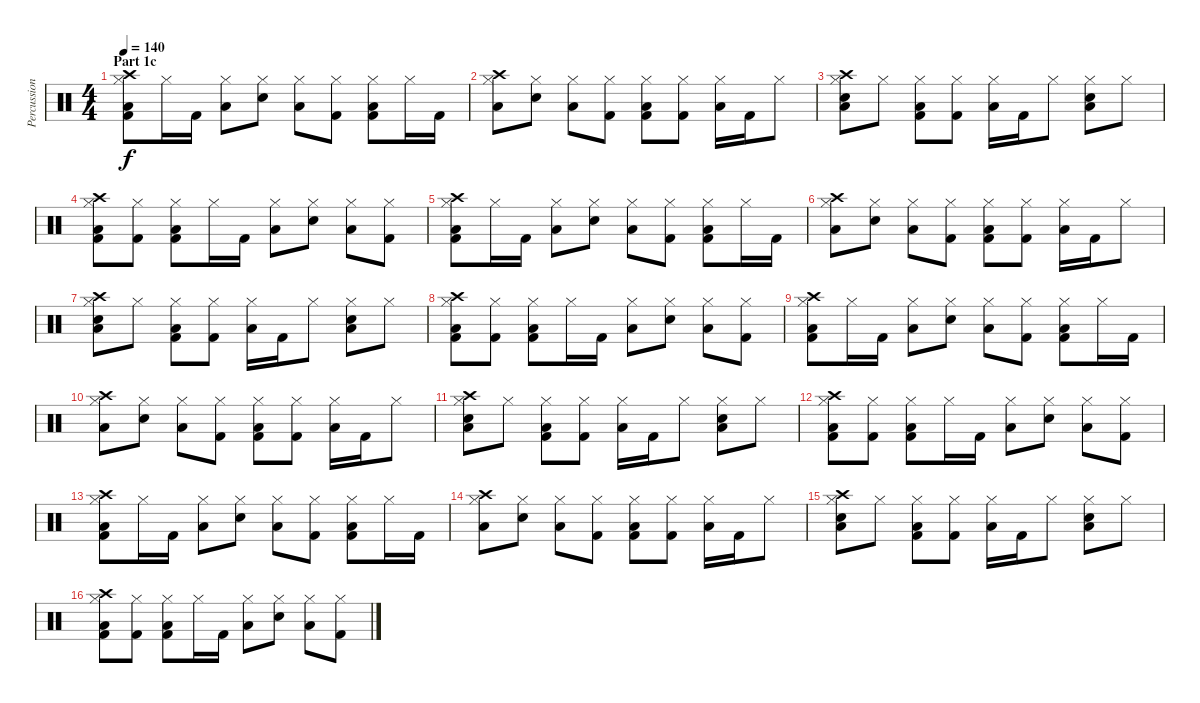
\track ("Percussion" "Percussion") {instrument percussion}
\staff {score}
\articulation defaults
\ts (4 4)
\section ("" "Part 1c")
\tempo 140
\clef neutral
\ks c
("Crash high (hit)" "Hi-Hat (closed)" "Low Tom (hit)" "Kick (hit) 2").8{dy f} "Hi-Hat (closed)".16 "Kick (hit) 2".16 ("Hi-Hat (closed)" "Low Tom (hit)").8 ("Hi-Hat (closed)" "Electric Snare (hit)").8 ("Hi-Hat (closed)" "Low Tom (hit)").8 ("Hi-Hat (closed)" "Kick (hit) 2").8 ("Hi-Hat (closed)" "Low Tom (hit)" "Kick (hit) 2").8 "Hi-Hat (closed)".16 "Kick (hit) 2".16 |
("Crash high (hit)" "Hi-Hat (closed)" "Low Tom (hit)").8 ("Hi-Hat (closed)" "Electric Snare (hit)").8 ("Hi-Hat (closed)" "Low Tom (hit)").8 ("Hi-Hat (closed)" "Kick (hit) 2").8 ("Hi-Hat (closed)" "Low Tom (hit)" "Kick (hit) 2").8 ("Hi-Hat (closed)" "Kick (hit) 2").8 ("Hi-Hat (closed)" "Low Tom (hit)").16 "Kick (hit) 2".16 "Hi-Hat (closed)".8 |
("Crash high (hit)" "Hi-Hat (closed)" "Low Tom (hit)" "Electric Snare (hit)").8 "Hi-Hat (closed)".8 ("Hi-Hat (closed)" "Low Tom (hit)" "Kick (hit) 2").8 ("Hi-Hat (closed)" "Kick (hit) 2").8 ("Hi-Hat (closed)" "Low Tom (hit)").16 "Kick (hit) 2".16 "Hi-Hat (closed)".8 ("Hi-Hat (closed)" "Low Tom (hit)" "Electric Snare (hit)").8 "Hi-Hat (closed)".8 |
("Crash high (hit)" "Hi-Hat (closed)" "Low Tom (hit)" "Kick (hit) 2").8 ("Hi-Hat (closed)" "Kick (hit) 2").8 ("Hi-Hat (closed)" "Low Tom (hit)" "Kick (hit) 2").8 "Hi-Hat (closed)".16 "Kick (hit) 2".16 ("Hi-Hat (closed)" "Low Tom (hit)").8 ("Hi-Hat (closed)" "Electric Snare (hit)").8 ("Hi-Hat (closed)" "Low Tom (hit)").8 ("Hi-Hat (closed)" "Kick (hit) 2").8 |
("Crash high (hit)" "Hi-Hat (closed)" "Low Tom (hit)" "Kick (hit) 2").8 "Hi-Hat (closed)".16 "Kick (hit) 2".16 ("Hi-Hat (closed)" "Low Tom (hit)").8 ("Hi-Hat (closed)" "Electric Snare (hit)").8 ("Hi-Hat (closed)" "Low Tom (hit)").8 ("Hi-Hat (closed)" "Kick (hit) 2").8 ("Hi-Hat (closed)" "Low Tom (hit)" "Kick (hit) 2").8 "Hi-Hat (closed)".16 "Kick (hit) 2".16 |
("Crash high (hit)" "Hi-Hat (closed)" "Low Tom (hit)").8 ("Hi-Hat (closed)" "Electric Snare (hit)").8 ("Hi-Hat (closed)" "Low Tom (hit)").8 ("Hi-Hat (closed)" "Kick (hit) 2").8 ("Hi-Hat (closed)" "Low Tom (hit)" "Kick (hit) 2").8 ("Hi-Hat (closed)" "Kick (hit) 2").8 ("Hi-Hat (closed)" "Low Tom (hit)").16 "Kick (hit) 2".16 "Hi-Hat (closed)".8 |
("Crash high (hit)" "Hi-Hat (closed)" "Low Tom (hit)" "Electric Snare (hit)").8 "Hi-Hat (closed)".8 ("Hi-Hat (closed)" "Low Tom (hit)" "Kick (hit) 2").8 ("Hi-Hat (closed)" "Kick (hit) 2").8 ("Hi-Hat (closed)" "Low Tom (hit)").16 "Kick (hit) 2".16 "Hi-Hat (closed)".8 ("Hi-Hat (closed)" "Low Tom (hit)" "Electric Snare (hit)").8 "Hi-Hat (closed)".8 |
("Crash high (hit)" "Hi-Hat (closed)" "Low Tom (hit)" "Kick (hit) 2").8 ("Hi-Hat (closed)" "Kick (hit) 2").8 ("Hi-Hat (closed)" "Low Tom (hit)" "Kick (hit) 2").8 "Hi-Hat (closed)".16 "Kick (hit) 2".16 ("Hi-Hat (closed)" "Low Tom (hit)").8 ("Hi-Hat (closed)" "Electric Snare (hit)").8 ("Hi-Hat (closed)" "Low Tom (hit)").8 ("Hi-Hat (closed)" "Kick (hit) 2").8 |
("Crash high (hit)" "Hi-Hat (closed)" "Low Tom (hit)" "Kick (hit) 2").8 "Hi-Hat (closed)".16 "Kick (hit) 2".16 ("Hi-Hat (closed)" "Low Tom (hit)").8 ("Hi-Hat (closed)" "Electric Snare (hit)").8 ("Hi-Hat (closed)" "Low Tom (hit)").8 ("Hi-Hat (closed)" "Kick (hit) 2").8 ("Hi-Hat (closed)" "Low Tom (hit)" "Kick (hit) 2").8 "Hi-Hat (closed)".16 "Kick (hit) 2".16 |
("Crash high (hit)" "Hi-Hat (closed)" "Low Tom (hit)").8 ("Hi-Hat (closed)" "Electric Snare (hit)").8 ("Hi-Hat (closed)" "Low Tom (hit)").8 ("Hi-Hat (closed)" "Kick (hit) 2").8 ("Hi-Hat (closed)" "Low Tom (hit)" "Kick (hit) 2").8 ("Hi-Hat (closed)" "Kick (hit) 2").8 ("Hi-Hat (closed)" "Low Tom (hit)").16 "Kick (hit) 2".16 "Hi-Hat (closed)".8 |
("Crash high (hit)" "Hi-Hat (closed)" "Low Tom (hit)" "Electric Snare (hit)").8 "Hi-Hat (closed)".8 ("Hi-Hat (closed)" "Low Tom (hit)" "Kick (hit) 2").8 ("Hi-Hat (closed)" "Kick (hit) 2").8 ("Hi-Hat (closed)" "Low Tom (hit)").16 "Kick (hit) 2".16 "Hi-Hat (closed)".8 ("Hi-Hat (closed)" "Low Tom (hit)" "Electric Snare (hit)").8 "Hi-Hat (closed)".8 |
("Crash high (hit)" "Hi-Hat (closed)" "Low Tom (hit)" "Kick (hit) 2").8 ("Hi-Hat (closed)" "Kick (hit) 2").8 ("Hi-Hat (closed)" "Low Tom (hit)" "Kick (hit) 2").8 "Hi-Hat (closed)".16 "Kick (hit) 2".16 ("Hi-Hat (closed)" "Low Tom (hit)").8 ("Hi-Hat (closed)" "Electric Snare (hit)").8 ("Hi-Hat (closed)" "Low Tom (hit)").8 ("Hi-Hat (closed)" "Kick (hit) 2").8 |
("Crash high (hit)" "Hi-Hat (closed)" "Low Tom (hit)" "Kick (hit) 2").8 "Hi-Hat (closed)".16 "Kick (hit) 2".16 ("Hi-Hat (closed)" "Low Tom (hit)").8 ("Hi-Hat (closed)" "Electric Snare (hit)").8 ("Hi-Hat (closed)" "Low Tom (hit)").8 ("Hi-Hat (closed)" "Kick (hit) 2").8 ("Hi-Hat (closed)" "Low Tom (hit)" "Kick (hit) 2").8 "Hi-Hat (closed)".16 "Kick (hit) 2".16 |
("Crash high (hit)" "Hi-Hat (closed)" "Low Tom (hit)").8 ("Hi-Hat (closed)" "Electric Snare (hit)").8 ("Hi-Hat (closed)" "Low Tom (hit)").8 ("Hi-Hat (closed)" "Kick (hit) 2").8 ("Hi-Hat (closed)" "Low Tom (hit)" "Kick (hit) 2").8 ("Hi-Hat (closed)" "Kick (hit) 2").8 ("Hi-Hat (closed)" "Low Tom (hit)").16 "Kick (hit) 2".16 "Hi-Hat (closed)".8 |
("Crash high (hit)" "Hi-Hat (closed)" "Low Tom (hit)" "Electric Snare (hit)").8 "Hi-Hat (closed)".8 ("Hi-Hat (closed)" "Low Tom (hit)" "Kick (hit) 2").8 ("Hi-Hat (closed)" "Kick (hit) 2").8 ("Hi-Hat (closed)" "Low Tom (hit)").16 "Kick (hit) 2".16 "Hi-Hat (closed)".8 ("Hi-Hat (closed)" "Low Tom (hit)" "Electric Snare (hit)").8 "Hi-Hat (closed)".8 |
("Crash high (hit)" "Hi-Hat (closed)" "Low Tom (hit)" "Kick (hit) 2").8 ("Hi-Hat (closed)" "Kick (hit) 2").8 ("Hi-Hat (closed)" "Low Tom (hit)" "Kick (hit) 2").8 "Hi-Hat (closed)".16 "Kick (hit) 2".16 ("Hi-Hat (closed)" "Low Tom (hit)").8 ("Hi-Hat (closed)" "Electric Snare (hit)").8 ("Hi-Hat (closed)" "Low Tom (hit)").8 ("Hi-Hat (closed)" "Kick (hit) 2").8
